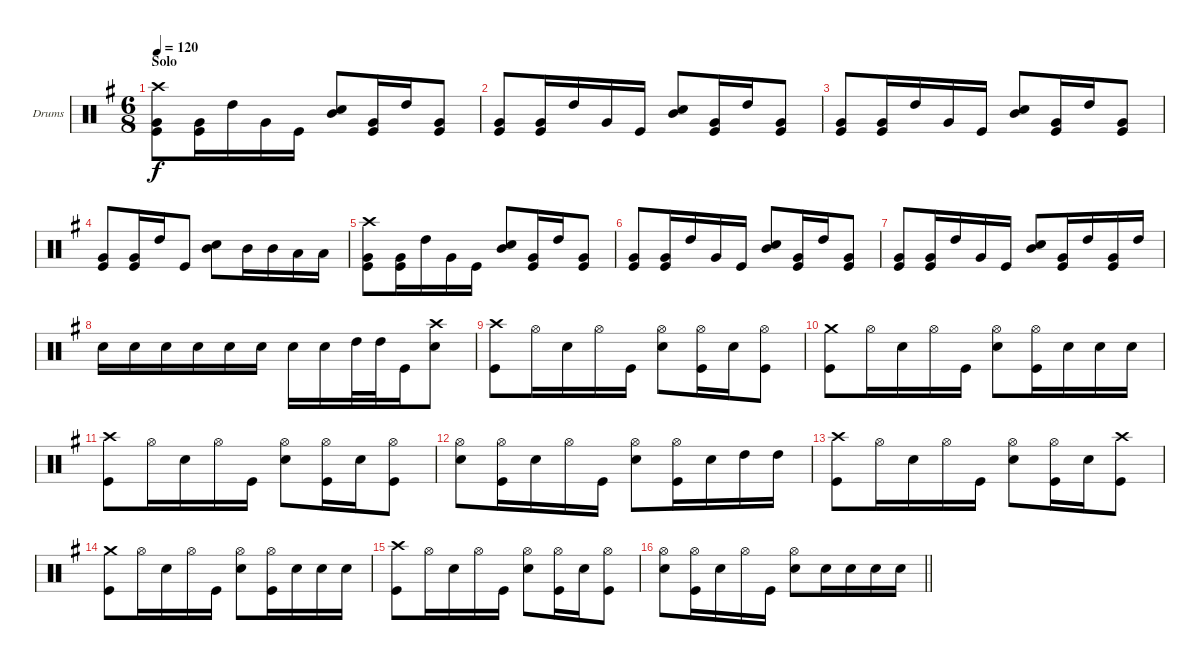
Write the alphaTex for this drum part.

\bracketExtendMode groupsimilarinstruments
\firstSystemTrackNameOrientation horizontal
\otherSystemsTrackNameOrientation horizontal
\track ("drums (Anton Zulganov)" "Drums") {instrument percussion}
\staff {score}
\articulation defaults
\ts (6 8)
\beaming (8 3 3)
\section ("" "Solo")
\tempo 120
\clef neutral
\ks eminor
("Kick (hit)" "Very Low Tom (hit)" "Crash high (hit)").8{dy f} ("Kick (hit)" "Very Low Tom (hit)").16 "High Tom (hit)".16 "Very Low Tom (hit)".16 "Kick (hit)".16 ("Snare (hit) 2" "Mid Tom (hit)").8 ("Kick (hit)" "Very Low Tom (hit)").16 "High Tom (hit)".16 ("Kick (hit)" "Very Low Tom (hit)").8 |
("Kick (hit)" "Very Low Tom (hit)").8 ("Kick (hit)" "Very Low Tom (hit)").16 "High Tom (hit)".16 "Very Low Tom (hit)".16 "Kick (hit)".16 ("Snare (hit) 2" "Mid Tom (hit)").8 ("Kick (hit)" "Very Low Tom (hit)").16 "High Tom (hit)".16 ("Kick (hit)" "Very Low Tom (hit)").8 |
("Kick (hit)" "Very Low Tom (hit)").8 ("Kick (hit)" "Very Low Tom (hit)").16 "High Tom (hit)".16 "Very Low Tom (hit)".16 "Kick (hit)".16 ("Snare (hit) 2" "Mid Tom (hit)").8 ("Kick (hit)" "Very Low Tom (hit)").16 "High Tom (hit)".16 ("Kick (hit)" "Very Low Tom (hit)").8 |
("Kick (hit)" "Very Low Tom (hit)").8 ("Kick (hit)" "Very Low Tom (hit)").16 "High Tom (hit)".16 "Kick (hit)".8 ("Snare (hit) 2" "Mid Tom (hit)").8 "Mid Tom (hit)".16 "Mid Tom (hit)".16 "Low Tom (hit)".16 "Low Tom (hit)".16 |
("Kick (hit)" "Very Low Tom (hit)" "Crash high (hit)").8 ("Kick (hit)" "Very Low Tom (hit)").16 "High Tom (hit)".16 "Very Low Tom (hit)".16 "Kick (hit)".16 ("Snare (hit) 2" "Mid Tom (hit)").8 ("Kick (hit)" "Very Low Tom (hit)").16 "High Tom (hit)".16 ("Kick (hit)" "Very Low Tom (hit)").8 |
("Kick (hit)" "Very Low Tom (hit)").8 ("Kick (hit)" "Very Low Tom (hit)").16 "High Tom (hit)".16 "Very Low Tom (hit)".16 "Kick (hit)".16 ("Snare (hit) 2" "Mid Tom (hit)").8 ("Kick (hit)" "Very Low Tom (hit)").16 "High Tom (hit)".16 ("Kick (hit)" "Very Low Tom (hit)").8 |
("Kick (hit)" "Very Low Tom (hit)").8 ("Kick (hit)" "Very Low Tom (hit)").16 "High Tom (hit)".16 "Very Low Tom (hit)".16 "Kick (hit)".16 ("Snare (hit) 2" "Mid Tom (hit)").8 ("Kick (hit)" "Very Low Tom (hit)").16 "High Tom (hit)".16 ("Kick (hit)" "Very Low Tom (hit)").16 "High Tom (hit)".16 |
"Snare (hit) 2".16 "Snare (hit) 2".16 "Snare (hit) 2".16 "Snare (hit) 2".16 "Snare (hit) 2".16 "Snare (hit) 2".16 "Snare (hit) 2".16 "Snare (hit) 2".16 "High Tom (hit)".32 "High Tom (hit)".32 "Kick (hit)".16 ("Snare (hit) 2" "Crash high (hit)").8 |
("Kick (hit)" "Crash high (hit)").8 "Hi-Hat (open)".16 "Snare (hit) 2".16 "Hi-Hat (open)".16 "Kick (hit)".16 ("Snare (hit) 2" "Hi-Hat (open)").8 ("Kick (hit)" "Hi-Hat (open)").16 "Snare (hit) 2".16 ("Kick (hit)" "Hi-Hat (open)").8 |
("Kick (hit)" "Crash medium (hit)").8 "Hi-Hat (open)".16 "Snare (hit) 2".16 "Hi-Hat (open)".16 "Kick (hit)".16 ("Snare (hit) 2" "Hi-Hat (open)").8 ("Kick (hit)" "Hi-Hat (open)").16 "Snare (hit) 2".16 "Snare (hit) 2".16 "Snare (hit) 2".16 |
("Kick (hit)" "Crash high (hit)").8 "Hi-Hat (open)".16 "Snare (hit) 2".16 "Hi-Hat (open)".16 "Kick (hit)".16 ("Snare (hit) 2" "Hi-Hat (open)").8 ("Kick (hit)" "Hi-Hat (open)").16 "Snare (hit) 2".16 ("Kick (hit)" "Hi-Hat (open)").8 |
("Snare (hit) 2" "Hi-Hat (open)").8 ("Hi-Hat (open)" "Kick (hit)").16 "Snare (hit) 2".16 "Hi-Hat (open)".16 "Kick (hit)".16 ("Snare (hit) 2" "Hi-Hat (open)").8 ("Kick (hit)" "Hi-Hat (open)").16 "Snare (hit) 2".16 "High Tom (hit)".16 "High Tom (hit)".16 |
("Kick (hit)" "Crash high (hit)").8 "Hi-Hat (open)".16 "Snare (hit) 2".16 "Hi-Hat (open)".16 "Kick (hit)".16 ("Snare (hit) 2" "Hi-Hat (open)").8 ("Kick (hit)" "Hi-Hat (open)").16 "Snare (hit) 2".16 ("Kick (hit)" "Crash high (hit)").8 |
("Kick (hit)" "Crash medium (hit)").8 "Hi-Hat (open)".16 "Snare (hit) 2".16 "Hi-Hat (open)".16 "Kick (hit)".16 ("Snare (hit) 2" "Hi-Hat (open)").8 ("Kick (hit)" "Hi-Hat (open)").16 "Snare (hit) 2".16 "Snare (hit) 2".16 "Snare (hit) 2".16 |
("Kick (hit)" "Crash high (hit)").8 "Hi-Hat (open)".16 "Snare (hit) 2".16 "Hi-Hat (open)".16 "Kick (hit)".16 ("Snare (hit) 2" "Hi-Hat (open)").8 ("Kick (hit)" "Hi-Hat (open)").16 "Snare (hit) 2".16 ("Kick (hit)" "Hi-Hat (open)").8 |
\barLineRight lightlight
("Snare (hit) 2" "Hi-Hat (open)").8 ("Hi-Hat (open)" "Kick (hit)").16 "Snare (hit) 2".16 "Hi-Hat (open)".16 "Kick (hit)".16 ("Snare (hit) 2" "Hi-Hat (open)").8 "Snare (hit) 2".16 "Snare (hit) 2".16 "Snare (hit) 2".16 "Snare (hit) 2".16
